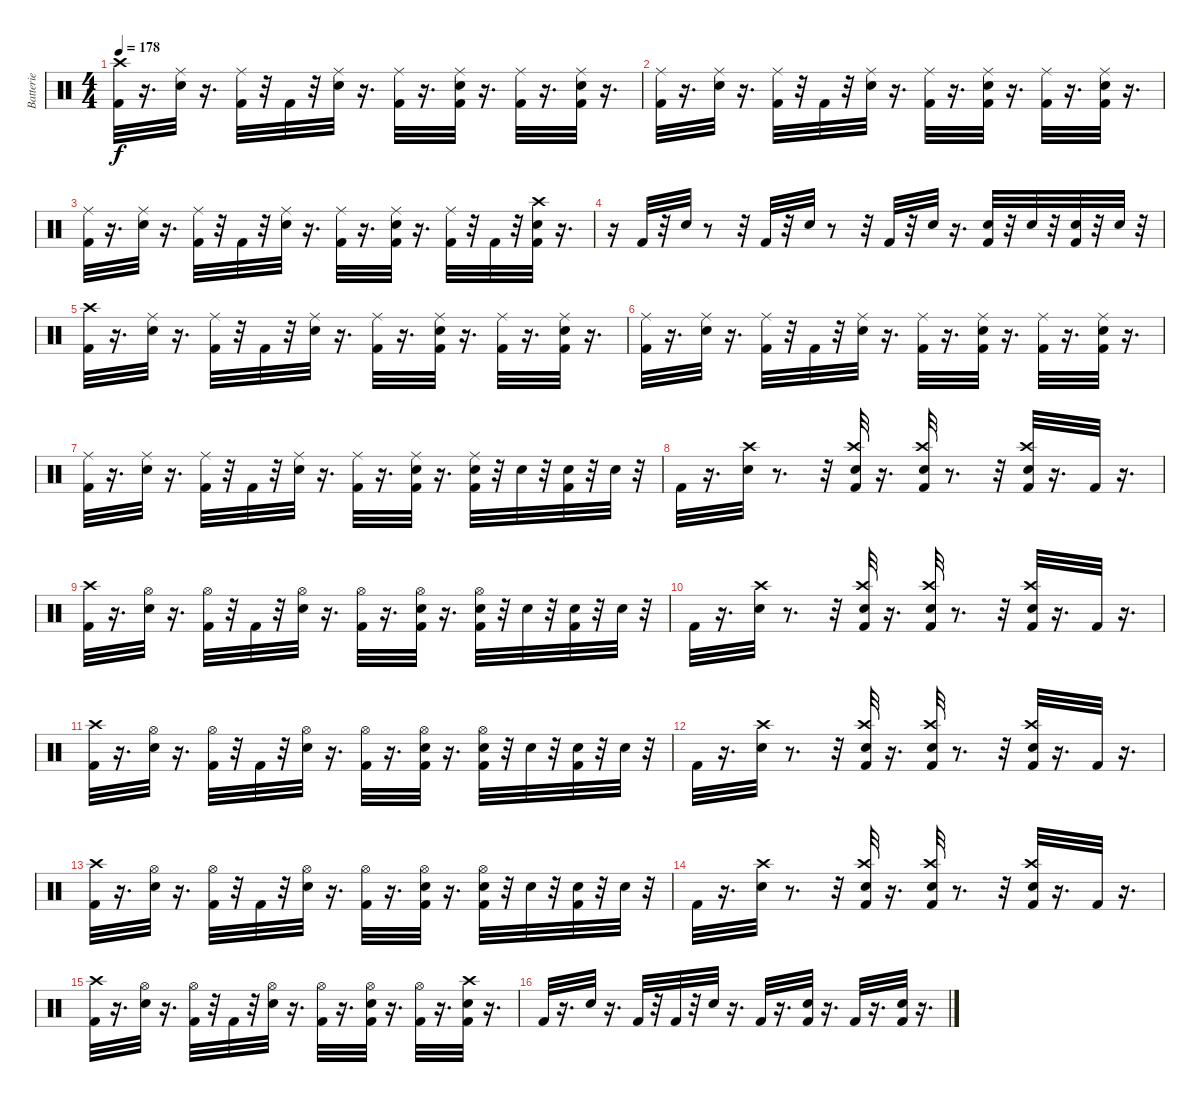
\track ("Batterie" "Batterie") {instrument percussion}
\staff {score}
\articulation defaults
\ts (4 4)
\tempo 178
\clef neutral
\ks c
("Kick (hit) 2" "Crash high (hit)").32{dy f} r.16{d} ("Electric Snare (hit)" "Ride (middle)").32 r.16{d} ("Kick (hit) 2" "Ride (middle)").32 r.32 "Kick (hit) 2".32 r.32 ("Electric Snare (hit)" "Ride (middle)").32 r.16{d} ("Kick (hit) 2" "Ride (middle)").32 r.16{d} ("Electric Snare (hit)" "Ride (middle)" "Kick (hit) 2").32 r.16{d} ("Kick (hit) 2" "Ride (middle)").32 r.16{d} ("Electric Snare (hit)" "Ride (middle)" "Kick (hit) 2").32 r.16{d} |
("Kick (hit) 2" "Ride (middle)").32 r.16{d} ("Electric Snare (hit)" "Ride (middle)").32 r.16{d} ("Kick (hit) 2" "Ride (middle)").32 r.32 "Kick (hit) 2".32 r.32 ("Electric Snare (hit)" "Ride (middle)").32 r.16{d} ("Kick (hit) 2" "Ride (middle)").32 r.16{d} ("Electric Snare (hit)" "Ride (middle)" "Kick (hit) 2").32 r.16{d} ("Kick (hit) 2" "Ride (middle)").32 r.16{d} ("Electric Snare (hit)" "Ride (middle)" "Kick (hit) 2").32 r.16{d} |
("Kick (hit) 2" "Ride (middle)").32 r.16{d} ("Electric Snare (hit)" "Ride (middle)").32 r.16{d} ("Kick (hit) 2" "Ride (middle)").32 r.32 "Kick (hit) 2".32 r.32 ("Electric Snare (hit)" "Ride (middle)").32 r.16{d} ("Kick (hit) 2" "Ride (middle)").32 r.16{d} ("Ride (middle)" "Kick (hit) 2" "Electric Snare (hit)").32 r.16{d} ("Kick (hit) 2" "Ride (middle)").32 r.32 "Kick (hit) 2".32 r.32 ("Electric Snare (hit)" "Kick (hit) 2" "Crash high (hit)").32 r.16{d} |
r.16 "Kick (hit) 2".32 r.32 "Electric Snare (hit)".32 r.8 r.32 "Kick (hit) 2".32 r.32 "Electric Snare (hit)".32 r.8 r.32 "Kick (hit) 2".32 r.32 "Electric Snare (hit)".32 r.16{d} ("Kick (hit) 2" "Electric Snare (hit)").32 r.32 "Electric Snare (hit)".32 r.32 ("Electric Snare (hit)" "Kick (hit) 2").32 r.32 "Electric Snare (hit)".32 r.32 |
("Kick (hit) 2" "Crash high (hit)").32 r.16{d} ("Electric Snare (hit)" "Ride (middle)").32 r.16{d} ("Kick (hit) 2" "Ride (middle)").32 r.32 "Kick (hit) 2".32 r.32 ("Electric Snare (hit)" "Ride (middle)").32 r.16{d} ("Kick (hit) 2" "Ride (middle)").32 r.16{d} ("Electric Snare (hit)" "Ride (middle)" "Kick (hit) 2").32 r.16{d} ("Kick (hit) 2" "Ride (middle)").32 r.16{d} ("Electric Snare (hit)" "Ride (middle)" "Kick (hit) 2").32 r.16{d} |
("Kick (hit) 2" "Ride (middle)").32 r.16{d} ("Electric Snare (hit)" "Ride (middle)").32 r.16{d} ("Kick (hit) 2" "Ride (middle)").32 r.32 "Kick (hit) 2".32 r.32 ("Electric Snare (hit)" "Ride (middle)").32 r.16{d} ("Kick (hit) 2" "Ride (middle)").32 r.16{d} ("Electric Snare (hit)" "Ride (middle)" "Kick (hit) 2").32 r.16{d} ("Kick (hit) 2" "Ride (middle)").32 r.16{d} ("Electric Snare (hit)" "Ride (middle)" "Kick (hit) 2").32 r.16{d} |
("Kick (hit) 2" "Ride (middle)").32 r.16{d} ("Electric Snare (hit)" "Ride (middle)").32 r.16{d} ("Kick (hit) 2" "Ride (middle)").32 r.32 "Kick (hit) 2".32 r.32 ("Electric Snare (hit)" "Ride (middle)").32 r.16{d} ("Kick (hit) 2" "Ride (middle)").32 r.16{d} ("Electric Snare (hit)" "Ride (middle)" "Kick (hit) 2").32 r.16{d} ("Kick (hit) 2" "Electric Snare (hit)" "Ride (middle)").32 r.32 "Electric Snare (hit)".32 r.32 ("Electric Snare (hit)" "Kick (hit) 2").32 r.32 "Electric Snare (hit)".32 r.32 |
"Kick (hit) 2".32 r.16{d} ("Crash high (hit)" "Electric Snare (hit)").32 r.8{d} r.32 ("Crash high (hit)" "Electric Snare (hit)" "Kick (hit) 2").32 r.16{d} ("Crash high (hit)" "Electric Snare (hit)" "Kick (hit) 2").32 r.8{d} r.32 ("Crash high (hit)" "Kick (hit) 2" "Electric Snare (hit)").32 r.16{d} "Kick (hit) 2".32 r.16{d} |
("Kick (hit) 2" "Crash high (hit)").32 r.16{d} ("Electric Snare (hit)" "Hi-Hat (open)").32 r.16{d} ("Kick (hit) 2" "Hi-Hat (open)").32 r.32 "Kick (hit) 2".32 r.32 ("Electric Snare (hit)" "Hi-Hat (open)").32 r.16{d} ("Kick (hit) 2" "Hi-Hat (open)").32 r.16{d} ("Electric Snare (hit)" "Kick (hit) 2" "Hi-Hat (open)").32 r.16{d} ("Kick (hit) 2" "Electric Snare (hit)" "Hi-Hat (open)").32 r.32 "Electric Snare (hit)".32 r.32 ("Electric Snare (hit)" "Kick (hit) 2").32 r.32 "Electric Snare (hit)".32 r.32 |
"Kick (hit) 2".32 r.16{d} ("Crash high (hit)" "Electric Snare (hit)").32 r.8{d} r.32 ("Crash high (hit)" "Electric Snare (hit)" "Kick (hit) 2").32 r.16{d} ("Crash high (hit)" "Electric Snare (hit)" "Kick (hit) 2").32 r.8{d} r.32 ("Crash high (hit)" "Kick (hit) 2" "Electric Snare (hit)").32 r.16{d} "Kick (hit) 2".32 r.16{d} |
("Kick (hit) 2" "Crash high (hit)").32 r.16{d} ("Electric Snare (hit)" "Hi-Hat (open)").32 r.16{d} ("Kick (hit) 2" "Hi-Hat (open)").32 r.32 "Kick (hit) 2".32 r.32 ("Electric Snare (hit)" "Hi-Hat (open)").32 r.16{d} ("Kick (hit) 2" "Hi-Hat (open)").32 r.16{d} ("Electric Snare (hit)" "Kick (hit) 2" "Hi-Hat (open)").32 r.16{d} ("Kick (hit) 2" "Hi-Hat (open)" "Electric Snare (hit)").32 r.32 "Electric Snare (hit)".32 r.32 ("Electric Snare (hit)" "Kick (hit) 2").32 r.32 "Electric Snare (hit)".32 r.32 |
"Kick (hit) 2".32 r.16{d} ("Crash high (hit)" "Electric Snare (hit)").32 r.8{d} r.32 ("Crash high (hit)" "Electric Snare (hit)" "Kick (hit) 2").32 r.16{d} ("Crash high (hit)" "Electric Snare (hit)" "Kick (hit) 2").32 r.8{d} r.32 ("Crash high (hit)" "Kick (hit) 2" "Electric Snare (hit)").32 r.16{d} "Kick (hit) 2".32 r.16{d} |
("Kick (hit) 2" "Crash high (hit)").32 r.16{d} ("Electric Snare (hit)" "Hi-Hat (open)").32 r.16{d} ("Kick (hit) 2" "Hi-Hat (open)").32 r.32 "Kick (hit) 2".32 r.32 ("Electric Snare (hit)" "Hi-Hat (open)").32 r.16{d} ("Kick (hit) 2" "Hi-Hat (open)").32 r.16{d} ("Electric Snare (hit)" "Kick (hit) 2" "Hi-Hat (open)").32 r.16{d} ("Kick (hit) 2" "Electric Snare (hit)" "Hi-Hat (open)").32 r.32 "Electric Snare (hit)".32 r.32 ("Electric Snare (hit)" "Kick (hit) 2").32 r.32 "Electric Snare (hit)".32 r.32 |
"Kick (hit) 2".32 r.16{d} ("Crash high (hit)" "Electric Snare (hit)").32 r.8{d} r.32 ("Crash high (hit)" "Electric Snare (hit)" "Kick (hit) 2").32 r.16{d} ("Crash high (hit)" "Electric Snare (hit)" "Kick (hit) 2").32 r.8{d} r.32 ("Crash high (hit)" "Kick (hit) 2" "Electric Snare (hit)").32 r.16{d} "Kick (hit) 2".32 r.16{d} |
("Kick (hit) 2" "Crash high (hit)").32 r.16{d} ("Electric Snare (hit)" "Hi-Hat (open)").32 r.16{d} ("Kick (hit) 2" "Hi-Hat (open)").32 r.32 "Kick (hit) 2".32 r.32 ("Electric Snare (hit)" "Hi-Hat (open)").32 r.16{d} ("Kick (hit) 2" "Hi-Hat (open)").32 r.16{d} ("Electric Snare (hit)" "Kick (hit) 2" "Hi-Hat (open)").32 r.16{d} ("Kick (hit) 2" "Hi-Hat (open)").32 r.16{d} ("Electric Snare (hit)" "Kick (hit) 2" "Crash high (hit)").32 r.16{d} |
"Kick (hit) 2".32 r.16{d} "Electric Snare (hit)".32 r.16{d} "Kick (hit) 2".32 r.32 "Kick (hit) 2".32 r.32 "Electric Snare (hit)".32 r.16{d} "Kick (hit) 2".32 r.16{d} ("Electric Snare (hit)" "Kick (hit) 2").32 r.16{d} "Kick (hit) 2".32 r.16{d} ("Electric Snare (hit)" "Kick (hit) 2").32 r.16{d}
